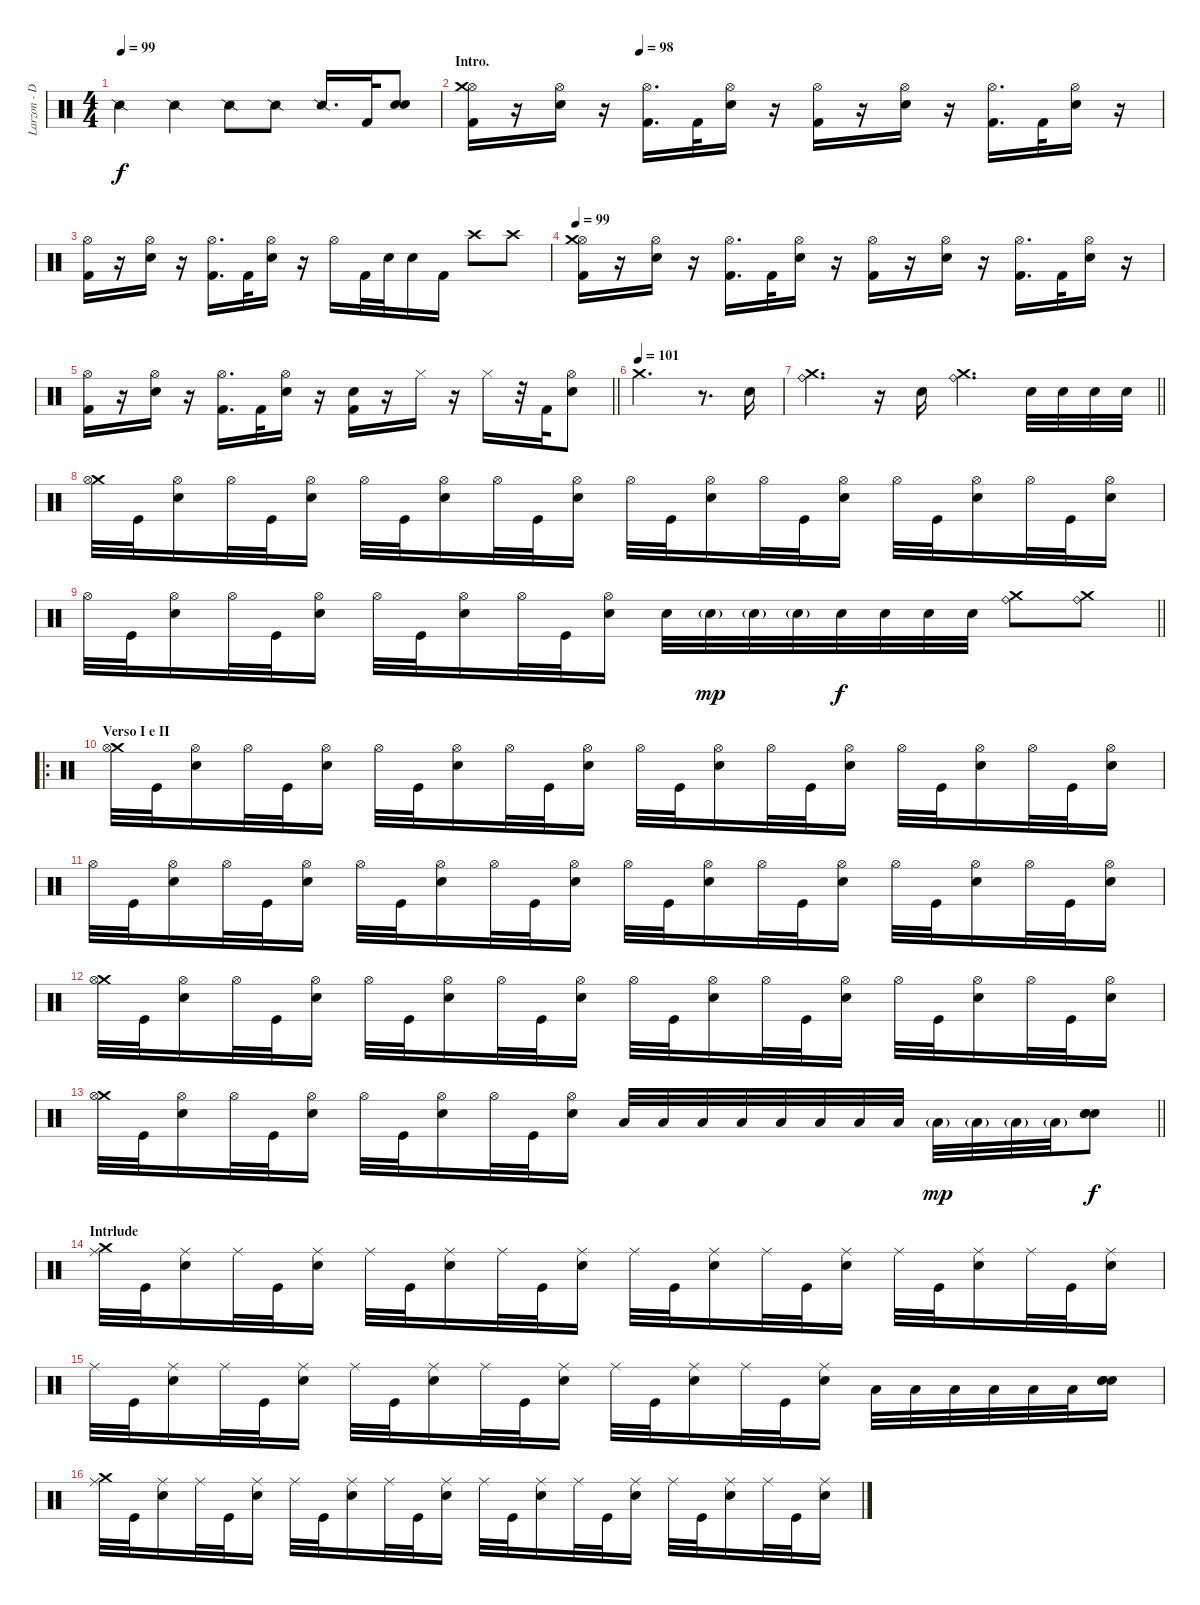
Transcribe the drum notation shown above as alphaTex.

\track ("Larzon - Drums" "Larzon - D") {instrument percussion}
\staff {score}
\articulation defaults
\ts (4 4)
\tempo 99
\tempo 95
\tempo 99
\clef neutral
\ks c "Snare (side stick) 2".4{dy f} "Snare (side stick) 2".4 "Snare (side stick) 2".8 "Snare (side stick) 2".8 "Snare (side stick) 2".16{d} "Kick (hit) 2".32
("Electric Snare (hit)" "Electric Snare (hit)").8 |
\section ("" "Intro.")
\tempo (98 0.25)
("Kick (hit) 2" "Hi-Hat (open)" "Crash medium (hit)").16 r.16 ("Electric Snare (hit)" "Hi-Hat (open)").16 r.16 ("Kick (hit) 2" "Hi-Hat (open)").16{d} "Kick (hit) 2".32 ("Electric Snare (hit)" "Hi-Hat (open)").16 r.16 ("Kick (hit) 2" "Hi-Hat (open)").16 r.16 ("Electric Snare (hit)" "Hi-Hat (open)").16 r.16 ("Kick (hit) 2" "Hi-Hat (open)").16{d} "Kick (hit) 2".32 ("Electric Snare (hit)" "Hi-Hat (open)").16 r.16 |
("Kick (hit) 2" "Hi-Hat (open)").16 r.16 ("Electric Snare (hit)" "Hi-Hat (open)").16 r.16 ("Kick (hit) 2" "Hi-Hat (open)").16{d} "Kick (hit) 2".32 ("Electric Snare (hit)" "Hi-Hat (open)").16 r.16 "Hi-Hat (open)".16 "Kick (hit) 2".32 "Electric Snare (hit)".32 "Electric Snare (hit)".16 "Kick (hit) 2".16 "Crash high (hit)".8 "Crash high (hit)".8 |
\tempo 99
("Kick (hit) 2" "Hi-Hat (open)" "Crash medium (hit)").16 r.16 ("Electric Snare (hit)" "Hi-Hat (open)").16 r.16 ("Kick (hit) 2" "Hi-Hat (open)").16{d} "Kick (hit) 2".32 ("Electric Snare (hit)" "Hi-Hat (open)").16 r.16 ("Kick (hit) 2" "Hi-Hat (open)").16 r.16 ("Electric Snare (hit)" "Hi-Hat (open)").16 r.16 ("Kick (hit) 2" "Hi-Hat (open)").16{d} "Kick (hit) 2".32 ("Electric Snare (hit)" "Hi-Hat (open)").16 r.16 |
\barLineRight lightlight
("Kick (hit) 2" "Hi-Hat (open)").16 r.16 ("Electric Snare (hit)" "Hi-Hat (open)").16 r.16 ("Kick (hit) 2" "Hi-Hat (open)").16{d} "Kick (hit) 2".32 ("Electric Snare (hit)" "Hi-Hat (open)").16 r.16 ("Kick (hit) 2" "Electric Snare (hit)").16 r.16 "Hi-Hat (closed)".16 r.16 "Hi-Hat (closed)".16 r.32 "Kick (hit) 2".32 ("Electric Snare (hit)" "Hi-Hat (open)").8 |
\tempo (101)
"Crash medium (hit)".2{d} r.8{d} "Electric Snare (hit)".16 |
\barLineRight lightlight
("Crash medium (hit)" "Ride (bell)").4{d} r.16 "Electric Snare (hit)".16 ("Crash medium (hit)" "Ride (bell)").4{d} "Electric Snare (hit)".32 "Electric Snare (hit)".32 "Electric Snare (hit)".32 "Electric Snare (hit)".32 |
("Crash medium (hit)" "Hi-Hat (open)").32 "Kick (hit)".32 ("Electric Snare (hit)" "Hi-Hat (open)").16 "Hi-Hat (open)".32 "Kick (hit)".32 ("Electric Snare (hit)" "Hi-Hat (open)").16 "Hi-Hat (open)".32 "Kick (hit)".32 ("Electric Snare (hit)" "Hi-Hat (open)").16 "Hi-Hat (open)".32 "Kick (hit)".32 ("Electric Snare (hit)" "Hi-Hat (open)").16 "Hi-Hat (open)".32 "Kick (hit)".32 ("Electric Snare (hit)" "Hi-Hat (open)").16 "Hi-Hat (open)".32 "Kick (hit)".32 ("Electric Snare (hit)" "Hi-Hat (open)").16 "Hi-Hat (open)".32 "Kick (hit)".32 ("Electric Snare (hit)" "Hi-Hat (open)").16 "Hi-Hat (open)".32 "Kick (hit)".32 ("Electric Snare (hit)" "Hi-Hat (open)").16 |
\barLineRight lightlight "Hi-Hat (open)".32 "Kick (hit)".32
("Electric Snare (hit)" "Hi-Hat (open)").16 "Hi-Hat (open)".32 "Kick (hit)".32 ("Electric Snare (hit)" "Hi-Hat (open)").16 "Hi-Hat (open)".32 "Kick (hit)".32 ("Electric Snare (hit)" "Hi-Hat (open)").16 "Hi-Hat (open)".32 "Kick (hit)".32 ("Electric Snare (hit)" "Hi-Hat (open)").16 "Electric Snare (hit)".32 "Electric Snare (hit)"{g}.32{dy mp} "Electric Snare (hit)"{g}.32 "Electric Snare (hit)"{g}.32 "Electric Snare (hit)".32{dy f} "Electric Snare (hit)".32 "Electric Snare (hit)".32 "Electric Snare (hit)".32 ("Ride (bell)" "Crash medium (hit)").8 ("Ride (bell)" "Crash medium (hit)").8 |
\ro
\section ("" "Verso I e II")
("Crash medium (hit)" "Hi-Hat (open)").32 "Kick (hit)".32 ("Electric Snare (hit)" "Hi-Hat (open)").16 "Hi-Hat (open)".32 "Kick (hit)".32 ("Electric Snare (hit)" "Hi-Hat (open)").16 "Hi-Hat (open)".32 "Kick (hit)".32 ("Electric Snare (hit)" "Hi-Hat (open)").16 "Hi-Hat (open)".32 "Kick (hit)".32 ("Electric Snare (hit)" "Hi-Hat (open)").16 "Hi-Hat (open)".32 "Kick (hit)".32 ("Electric Snare (hit)" "Hi-Hat (open)").16 "Hi-Hat (open)".32 "Kick (hit)".32 ("Electric Snare (hit)" "Hi-Hat (open)").16 "Hi-Hat (open)".32 "Kick (hit)".32 ("Electric Snare (hit)" "Hi-Hat (open)").16 "Hi-Hat (open)".32 "Kick (hit)".32 ("Electric Snare (hit)" "Hi-Hat (open)").16 |
"Hi-Hat (open)".32 "Kick (hit)".32 ("Electric Snare (hit)" "Hi-Hat (open)").16 "Hi-Hat (open)".32 "Kick (hit)".32 ("Electric Snare (hit)" "Hi-Hat (open)").16 "Hi-Hat (open)".32 "Kick (hit)".32 ("Electric Snare (hit)" "Hi-Hat (open)").16 "Hi-Hat (open)".32 "Kick (hit)".32 ("Electric Snare (hit)" "Hi-Hat (open)").16 "Hi-Hat (open)".32 "Kick (hit)".32 ("Electric Snare (hit)" "Hi-Hat (open)").16 "Hi-Hat (open)".32 "Kick (hit)".32 ("Electric Snare (hit)" "Hi-Hat (open)").16 "Hi-Hat (open)".32 "Kick (hit)".32 ("Electric Snare (hit)" "Hi-Hat (open)").16 "Hi-Hat (open)".32 "Kick (hit)".32 ("Electric Snare (hit)" "Hi-Hat (open)").16 |
("Crash medium (hit)" "Hi-Hat (open)").32 "Kick (hit)".32 ("Electric Snare (hit)" "Hi-Hat (open)").16 "Hi-Hat (open)".32 "Kick (hit)".32 ("Electric Snare (hit)" "Hi-Hat (open)").16 "Hi-Hat (open)".32 "Kick (hit)".32 ("Electric Snare (hit)" "Hi-Hat (open)").16 "Hi-Hat (open)".32 "Kick (hit)".32 ("Electric Snare (hit)" "Hi-Hat (open)").16 "Hi-Hat (open)".32 "Kick (hit)".32 ("Electric Snare (hit)" "Hi-Hat (open)").16 "Hi-Hat (open)".32 "Kick (hit)".32 ("Electric Snare (hit)" "Hi-Hat (open)").16 "Hi-Hat (open)".32 "Kick (hit)".32 ("Electric Snare (hit)" "Hi-Hat (open)").16 "Hi-Hat (open)".32 "Kick (hit)".32 ("Electric Snare (hit)" "Hi-Hat (open)").16 |
\barLineRight lightlight
("Crash medium (hit)" "Hi-Hat (open)").32 "Kick (hit)".32 ("Electric Snare (hit)" "Hi-Hat (open)").16 "Hi-Hat (open)".32 "Kick (hit)".32 ("Electric Snare (hit)" "Hi-Hat (open)").16 "Hi-Hat (open)".32 "Kick (hit)".32 ("Electric Snare (hit)" "Hi-Hat (open)").16 "Hi-Hat (open)".32 "Kick (hit)".32 ("Electric Snare (hit)" "Hi-Hat (open)").16 "Low Tom (hit)".32 "Low Tom (hit)".32 "Low Tom (hit)".32 "Low Tom (hit)".32 "Low Tom (hit)".32 "Low Tom (hit)".32 "Low Tom (hit)".32 "Low Tom (hit)".32 "Low Tom (hit)"{g}.32{dy mp} "Low Tom (hit)"{g}.32 "Low Tom (hit)"{g}.32 "Low Tom (hit)"{g}.32 ("Electric Snare (hit)" "Electric Snare (hit)" "Electric Snare (hit)").8{dy f} |
\section ("" "Intrlude")
("Crash medium (hit)" "Ride (middle)").32 "Kick (hit)".32 ("Electric Snare (hit)" "Ride (middle)").16 "Ride (middle)".32 "Kick (hit)".32 ("Electric Snare (hit)" "Ride (middle)").16 "Ride (middle)".32 "Kick (hit)".32 ("Electric Snare (hit)" "Ride (middle)").16 "Ride (middle)".32 "Kick (hit)".32 ("Electric Snare (hit)" "Ride (middle)").16 "Ride (middle)".32 "Kick (hit)".32 ("Electric Snare (hit)" "Ride (middle)").16 "Ride (middle)".32 "Kick (hit)".32 ("Electric Snare (hit)" "Ride (middle)").16 "Ride (middle)".32 "Kick (hit)".32 ("Electric Snare (hit)" "Ride (middle)").16 "Ride (middle)".32 "Kick (hit)".32 ("Electric Snare (hit)" "Ride (middle)").16 |
"Ride (middle)".32 "Kick (hit)".32 ("Electric Snare (hit)" "Ride (middle)").16 "Ride (middle)".32 "Kick (hit)".32 ("Electric Snare (hit)" "Ride (middle)").16 "Ride (middle)".32 "Kick (hit)".32 ("Electric Snare (hit)" "Ride (middle)").16 "Ride (middle)".32 "Kick (hit)".32 ("Electric Snare (hit)" "Ride (middle)").16 "Ride (middle)".32 "Kick (hit)".32 ("Electric Snare (hit)" "Ride (middle)").16 "Ride (middle)".32 "Kick (hit)".32 ("Electric Snare (hit)" "Ride (middle)").16 "Low Tom (hit)".32 "Low Tom (hit)".32 "Low Tom (hit)".32 "Low Tom (hit)".32 "Low Tom (hit)".32 "Low Tom (hit)".32 ("Electric Snare (hit)" "Electric Snare (hit)" "Electric Snare (hit)").16 |
("Crash medium (hit)" "Ride (middle)").32 "Kick (hit)".32 ("Electric Snare (hit)" "Ride (middle)").16 "Ride (middle)".32 "Kick (hit)".32 ("Electric Snare (hit)" "Ride (middle)").16 "Ride (middle)".32 "Kick (hit)".32 ("Electric Snare (hit)" "Ride (middle)").16 "Ride (middle)".32 "Kick (hit)".32 ("Electric Snare (hit)" "Ride (middle)").16 "Ride (middle)".32 "Kick (hit)".32 ("Electric Snare (hit)" "Ride (middle)").16 "Ride (middle)".32 "Kick (hit)".32 ("Electric Snare (hit)" "Ride (middle)").16 "Ride (middle)".32 "Kick (hit)".32 ("Electric Snare (hit)" "Ride (middle)").16 "Ride (middle)".32 "Kick (hit)".32 ("Electric Snare (hit)" "Ride (middle)").16
